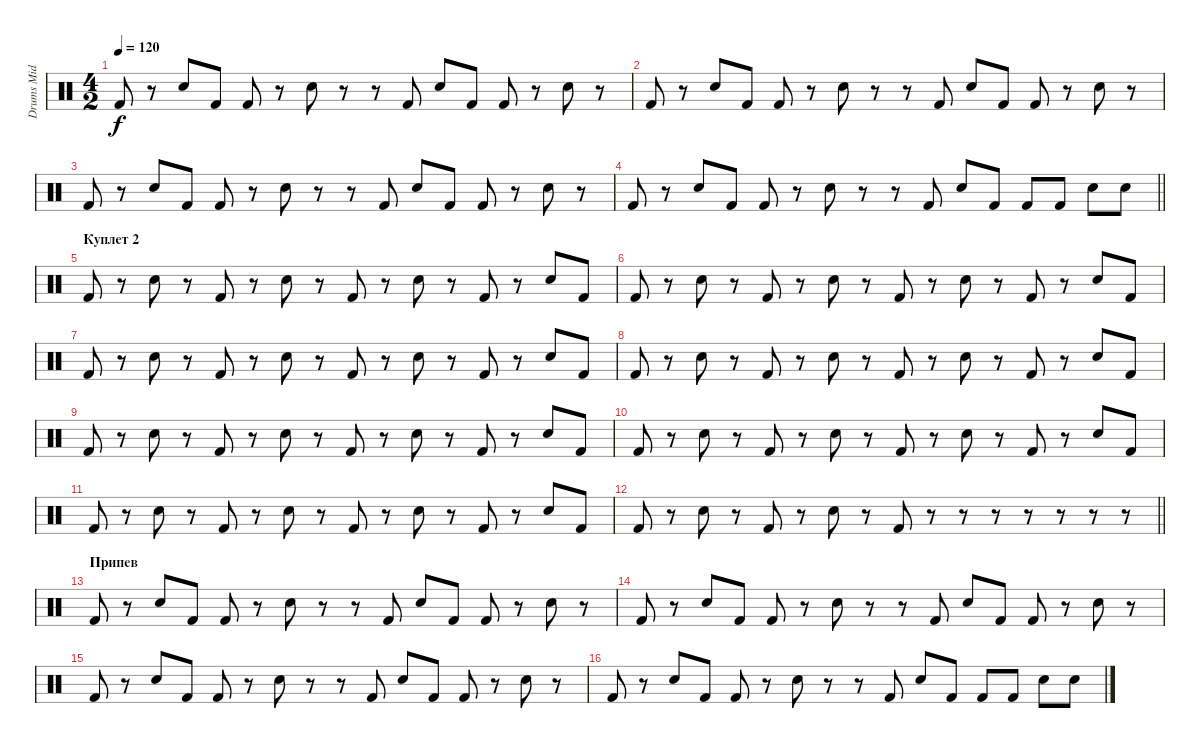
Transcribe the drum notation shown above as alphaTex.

\track ("Drums Mid" "Drums Mid") {instrument percussion}
\staff {score}
\articulation defaults
\ts (4 2)
\tempo 120
\clef neutral
\ks c "Kick (hit) 2".8{dy f}
r.8 "Snare (hit) 2".8 "Kick (hit) 2".8 "Kick (hit) 2".8 r.8 "Snare (hit) 2".8 r.8 r.8 "Kick (hit) 2".8 "Snare (hit) 2".8 "Kick (hit) 2".8 "Kick (hit) 2".8 r.8 "Snare (hit) 2".8 r.8 |
"Kick (hit) 2".8 r.8 "Snare (hit) 2".8 "Kick (hit) 2".8 "Kick (hit) 2".8 r.8 "Snare (hit) 2".8 r.8 r.8 "Kick (hit) 2".8 "Snare (hit) 2".8 "Kick (hit) 2".8 "Kick (hit) 2".8 r.8 "Snare (hit) 2".8 r.8 |
"Kick (hit) 2".8 r.8 "Snare (hit) 2".8 "Kick (hit) 2".8 "Kick (hit) 2".8 r.8 "Snare (hit) 2".8 r.8 r.8 "Kick (hit) 2".8 "Snare (hit) 2".8 "Kick (hit) 2".8 "Kick (hit) 2".8 r.8 "Snare (hit) 2".8 r.8 |
\barLineRight lightlight "Kick (hit) 2".8
r.8 "Snare (hit) 2".8 "Kick (hit) 2".8 "Kick (hit) 2".8 r.8 "Snare (hit) 2".8 r.8 r.8 "Kick (hit) 2".8 "Snare (hit) 2".8 "Kick (hit) 2".8 "Kick (hit) 2".8 "Kick (hit) 2".8 "Snare (hit) 2".8 "Snare (hit) 2".8 |
\section ("" "Куплет 2")
"Kick (hit) 2".8 r.8 "Snare (hit) 2".8 r.8 "Kick (hit) 2".8 r.8 "Snare (hit) 2".8 r.8 "Kick (hit) 2".8 r.8 "Snare (hit) 2".8 r.8 "Kick (hit) 2".8 r.8 "Snare (hit) 2".8 "Kick (hit) 2".8 |
"Kick (hit) 2".8 r.8 "Snare (hit) 2".8 r.8 "Kick (hit) 2".8 r.8 "Snare (hit) 2".8 r.8 "Kick (hit) 2".8 r.8 "Snare (hit) 2".8 r.8 "Kick (hit) 2".8 r.8 "Snare (hit) 2".8 "Kick (hit) 2".8 |
"Kick (hit) 2".8 r.8 "Snare (hit) 2".8 r.8 "Kick (hit) 2".8 r.8 "Snare (hit) 2".8 r.8 "Kick (hit) 2".8 r.8 "Snare (hit) 2".8 r.8 "Kick (hit) 2".8 r.8 "Snare (hit) 2".8 "Kick (hit) 2".8 |
"Kick (hit) 2".8 r.8 "Snare (hit) 2".8 r.8 "Kick (hit) 2".8 r.8 "Snare (hit) 2".8 r.8 "Kick (hit) 2".8 r.8 "Snare (hit) 2".8 r.8 "Kick (hit) 2".8 r.8 "Snare (hit) 2".8 "Kick (hit) 2".8 |
"Kick (hit) 2".8 r.8 "Snare (hit) 2".8 r.8 "Kick (hit) 2".8 r.8 "Snare (hit) 2".8 r.8 "Kick (hit) 2".8 r.8 "Snare (hit) 2".8 r.8 "Kick (hit) 2".8 r.8 "Snare (hit) 2".8 "Kick (hit) 2".8 |
"Kick (hit) 2".8 r.8 "Snare (hit) 2".8 r.8 "Kick (hit) 2".8 r.8 "Snare (hit) 2".8 r.8 "Kick (hit) 2".8 r.8 "Snare (hit) 2".8 r.8 "Kick (hit) 2".8 r.8 "Snare (hit) 2".8 "Kick (hit) 2".8 |
"Kick (hit) 2".8 r.8 "Snare (hit) 2".8 r.8 "Kick (hit) 2".8 r.8 "Snare (hit) 2".8 r.8 "Kick (hit) 2".8 r.8 "Snare (hit) 2".8 r.8 "Kick (hit) 2".8 r.8 "Snare (hit) 2".8 "Kick (hit) 2".8 |
\barLineRight lightlight "Kick (hit) 2".8
r.8 "Snare (hit) 2".8 r.8 "Kick (hit) 2".8 r.8 "Snare (hit) 2".8 r.8 "Kick (hit) 2".8 r.8 r.8 r.8 r.8 r.8 r.8 r.8 |
\section ("" "Припев")
"Kick (hit) 2".8 r.8 "Snare (hit) 2".8 "Kick (hit) 2".8 "Kick (hit) 2".8 r.8 "Snare (hit) 2".8 r.8 r.8 "Kick (hit) 2".8 "Snare (hit) 2".8 "Kick (hit) 2".8 "Kick (hit) 2".8 r.8 "Snare (hit) 2".8 r.8 |
"Kick (hit) 2".8 r.8 "Snare (hit) 2".8 "Kick (hit) 2".8 "Kick (hit) 2".8 r.8 "Snare (hit) 2".8 r.8 r.8 "Kick (hit) 2".8 "Snare (hit) 2".8 "Kick (hit) 2".8 "Kick (hit) 2".8 r.8 "Snare (hit) 2".8 r.8 |
"Kick (hit) 2".8 r.8 "Snare (hit) 2".8 "Kick (hit) 2".8 "Kick (hit) 2".8 r.8 "Snare (hit) 2".8 r.8 r.8 "Kick (hit) 2".8 "Snare (hit) 2".8 "Kick (hit) 2".8 "Kick (hit) 2".8 r.8 "Snare (hit) 2".8 r.8 |
"Kick (hit) 2".8 r.8 "Snare (hit) 2".8 "Kick (hit) 2".8 "Kick (hit) 2".8 r.8 "Snare (hit) 2".8 r.8 r.8 "Kick (hit) 2".8 "Snare (hit) 2".8 "Kick (hit) 2".8 "Kick (hit) 2".8 "Kick (hit) 2".8 "Snare (hit) 2".8 "Snare (hit) 2".8
